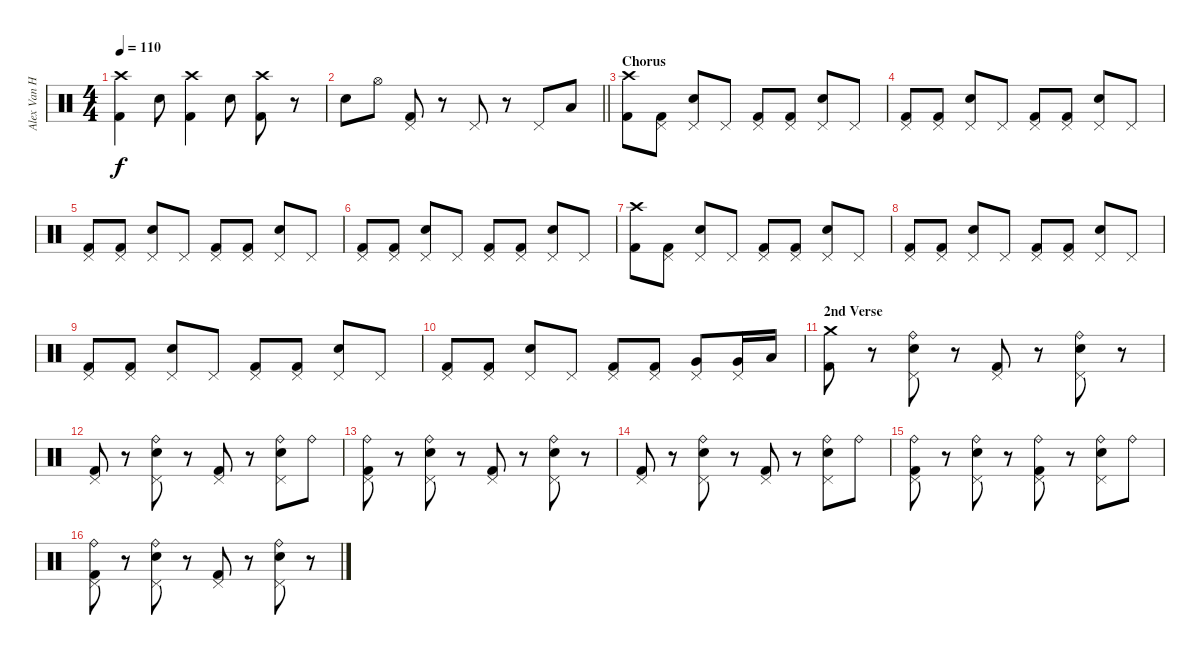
\track ("Alex Van Halen" "Alex Van H") {instrument percussion}
\staff {score}
\articulation defaults
\ts (4 4)
\tempo 110
\clef neutral
\ks c
("Crash high (hit)" "Kick (hit) 2").4{dy f} "Snare (hit) 2".8 ("Crash high (hit)" "Kick (hit) 2").4 "Snare (hit) 2".8 ("Crash high (hit)" "Kick (hit) 2").8 r.8 |
\barLineRight lightlight "Snare (hit) 2".8 "Hi-Hat (open)".8
("Pedal Hi-Hat (hit)" "Kick (hit) 2").8 r.8 "Pedal Hi-Hat (hit)".8 r.8 "Pedal Hi-Hat (hit)".8 "Low Floor Tom (hit)".8 |
\section ("" "Chorus")
("Crash high (hit)" "Kick (hit) 2").8 ("Pedal Hi-Hat (hit)" "Kick (hit) 2").8 ("Pedal Hi-Hat (hit)" "Snare (hit) 2").8 "Pedal Hi-Hat (hit)".8 ("Pedal Hi-Hat (hit)" "Kick (hit) 2").8 ("Pedal Hi-Hat (hit)" "Kick (hit) 2").8 ("Pedal Hi-Hat (hit)" "Snare (hit) 2").8 "Pedal Hi-Hat (hit)".8 |
("Pedal Hi-Hat (hit)" "Kick (hit) 2").8 ("Pedal Hi-Hat (hit)" "Kick (hit) 2").8 ("Pedal Hi-Hat (hit)" "Snare (hit) 2").8 "Pedal Hi-Hat (hit)".8 ("Pedal Hi-Hat (hit)" "Kick (hit) 2").8 ("Pedal Hi-Hat (hit)" "Kick (hit) 2").8 ("Pedal Hi-Hat (hit)" "Snare (hit) 2").8 "Pedal Hi-Hat (hit)".8 |
("Pedal Hi-Hat (hit)" "Kick (hit) 2").8 ("Pedal Hi-Hat (hit)" "Kick (hit) 2").8 ("Pedal Hi-Hat (hit)" "Snare (hit) 2").8 "Pedal Hi-Hat (hit)".8 ("Pedal Hi-Hat (hit)" "Kick (hit) 2").8 ("Pedal Hi-Hat (hit)" "Kick (hit) 2").8 ("Pedal Hi-Hat (hit)" "Snare (hit) 2").8 "Pedal Hi-Hat (hit)".8 |
("Pedal Hi-Hat (hit)" "Kick (hit) 2").8 ("Pedal Hi-Hat (hit)" "Kick (hit) 2").8 ("Pedal Hi-Hat (hit)" "Snare (hit) 2").8 "Pedal Hi-Hat (hit)".8 ("Pedal Hi-Hat (hit)" "Kick (hit) 2").8 ("Pedal Hi-Hat (hit)" "Kick (hit) 2").8 ("Pedal Hi-Hat (hit)" "Snare (hit) 2").8 "Pedal Hi-Hat (hit)".8 |
("Crash high (hit)" "Kick (hit) 2").8 ("Pedal Hi-Hat (hit)" "Kick (hit) 2").8 ("Pedal Hi-Hat (hit)" "Snare (hit) 2").8 "Pedal Hi-Hat (hit)".8 ("Pedal Hi-Hat (hit)" "Kick (hit) 2").8 ("Pedal Hi-Hat (hit)" "Kick (hit) 2").8 ("Pedal Hi-Hat (hit)" "Snare (hit) 2").8 "Pedal Hi-Hat (hit)".8 |
("Pedal Hi-Hat (hit)" "Kick (hit) 2").8 ("Pedal Hi-Hat (hit)" "Kick (hit) 2").8 ("Pedal Hi-Hat (hit)" "Snare (hit) 2").8 "Pedal Hi-Hat (hit)".8 ("Pedal Hi-Hat (hit)" "Kick (hit) 2").8 ("Pedal Hi-Hat (hit)" "Kick (hit) 2").8 ("Pedal Hi-Hat (hit)" "Snare (hit) 2").8 "Pedal Hi-Hat (hit)".8 |
("Pedal Hi-Hat (hit)" "Kick (hit) 2").8 ("Pedal Hi-Hat (hit)" "Kick (hit) 2").8 ("Pedal Hi-Hat (hit)" "Snare (hit) 2").8 "Pedal Hi-Hat (hit)".8 ("Pedal Hi-Hat (hit)" "Kick (hit) 2").8 ("Pedal Hi-Hat (hit)" "Kick (hit) 2").8 ("Pedal Hi-Hat (hit)" "Snare (hit) 2").8 "Pedal Hi-Hat (hit)".8 |
("Pedal Hi-Hat (hit)" "Kick (hit) 2").8 ("Pedal Hi-Hat (hit)" "Kick (hit) 2").8 ("Pedal Hi-Hat (hit)" "Snare (hit) 2").8 "Pedal Hi-Hat (hit)".8 ("Pedal Hi-Hat (hit)" "Kick (hit) 2").8 ("Pedal Hi-Hat (hit)" "Kick (hit) 2").8 ("Pedal Hi-Hat (hit)" "Very Low Tom (hit)").8 ("Pedal Hi-Hat (hit)" "Very Low Tom (hit)").16 "Low Floor Tom (hit)".16 |
\section ("" "2nd Verse")
("Crash medium (hit)" "Kick (hit) 2").8 r.8 ("Ride (bell)" "Pedal Hi-Hat (hit)" "Snare (hit) 2").8 r.8 ("Pedal Hi-Hat (hit)" "Kick (hit) 2").8 r.8 ("Ride (bell)" "Pedal Hi-Hat (hit)" "Snare (hit) 2").8 r.8 |
("Pedal Hi-Hat (hit)" "Kick (hit) 2").8 r.8 ("Ride (bell)" "Pedal Hi-Hat (hit)" "Snare (hit) 2").8 r.8 ("Pedal Hi-Hat (hit)" "Kick (hit) 2").8 r.8 ("Ride (bell)" "Pedal Hi-Hat (hit)" "Snare (hit) 2").8 "Ride (bell)".8 |
("Ride (bell)" "Pedal Hi-Hat (hit)" "Kick (hit) 2").8 r.8 ("Ride (bell)" "Pedal Hi-Hat (hit)" "Snare (hit) 2").8 r.8 ("Pedal Hi-Hat (hit)" "Kick (hit) 2").8 r.8 ("Ride (bell)" "Pedal Hi-Hat (hit)" "Snare (hit) 2").8 r.8 |
("Pedal Hi-Hat (hit)" "Kick (hit) 2").8 r.8 ("Ride (bell)" "Pedal Hi-Hat (hit)" "Snare (hit) 2").8 r.8 ("Pedal Hi-Hat (hit)" "Kick (hit) 2").8 r.8 ("Ride (bell)" "Pedal Hi-Hat (hit)" "Snare (hit) 2").8 "Ride (bell)".8 |
("Ride (bell)" "Pedal Hi-Hat (hit)" "Kick (hit) 2").8 r.8 ("Ride (bell)" "Pedal Hi-Hat (hit)" "Snare (hit) 2").8 r.8 ("Ride (bell)" "Pedal Hi-Hat (hit)" "Kick (hit) 2").8 r.8 ("Ride (bell)" "Pedal Hi-Hat (hit)" "Snare (hit) 2").8 "Ride (bell)".8 |
("Ride (bell)" "Pedal Hi-Hat (hit)" "Kick (hit) 2").8 r.8 ("Ride (bell)" "Pedal Hi-Hat (hit)" "Snare (hit) 2").8 r.8 ("Pedal Hi-Hat (hit)" "Kick (hit) 2").8 r.8 ("Ride (bell)" "Pedal Hi-Hat (hit)" "Snare (hit) 2").8 r.8
